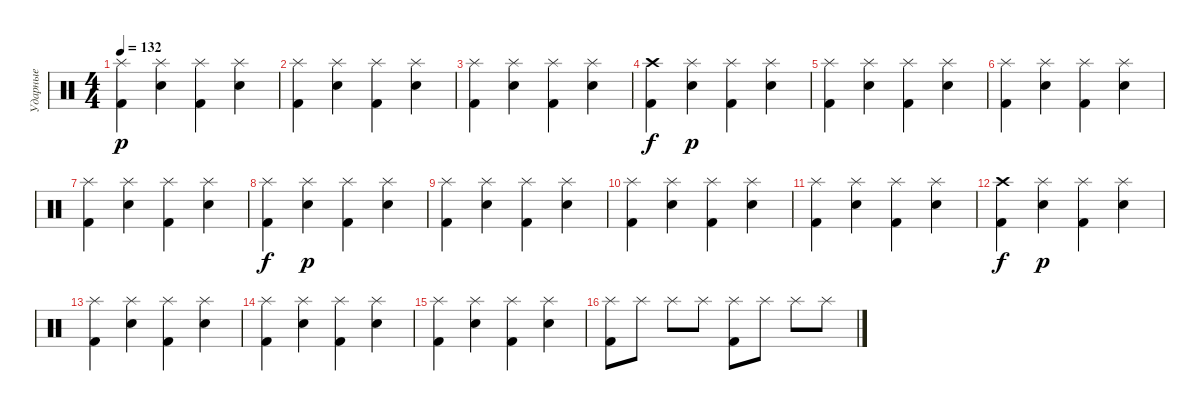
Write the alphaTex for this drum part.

\track ("Ударные" "Ударные") {instrument percussion}
\staff {score}
\articulation defaults
\ts (4 4)
\tempo 132
\clef neutral
\ks c
("Splash (hit)" "Kick (hit) 2").4{dy p} ("Splash (hit)" "Electric Snare (hit)").4 ("Splash (hit)" "Kick (hit) 2").4 ("Splash (hit)" "Electric Snare (hit)").4 |
("Splash (hit)" "Kick (hit) 2").4 ("Splash (hit)" "Electric Snare (hit)").4 ("Splash (hit)" "Kick (hit) 2").4 ("Splash (hit)" "Electric Snare (hit)").4 |
("Splash (hit)" "Kick (hit) 2").4 ("Splash (hit)" "Electric Snare (hit)").4 ("Splash (hit)" "Kick (hit) 2").4 ("Splash (hit)" "Electric Snare (hit)").4 |
("Crash high (hit)" "Kick (hit) 2").4{dy f} ("Splash (hit)" "Electric Snare (hit)").4{dy p} ("Splash (hit)" "Kick (hit) 2").4 ("Splash (hit)" "Electric Snare (hit)").4 |
("Splash (hit)" "Kick (hit) 2").4 ("Splash (hit)" "Electric Snare (hit)").4 ("Splash (hit)" "Kick (hit) 2").4 ("Splash (hit)" "Electric Snare (hit)").4 |
("Splash (hit)" "Kick (hit) 2").4 ("Splash (hit)" "Electric Snare (hit)").4 ("Splash (hit)" "Kick (hit) 2").4 ("Splash (hit)" "Electric Snare (hit)").4 |
("Splash (hit)" "Kick (hit) 2").4 ("Splash (hit)" "Electric Snare (hit)").4 ("Splash (hit)" "Kick (hit) 2").4 ("Splash (hit)" "Electric Snare (hit)").4 |
("Splash (hit)" "Kick (hit) 2").4{dy f} ("Splash (hit)" "Electric Snare (hit)").4{dy p} ("Splash (hit)" "Kick (hit) 2").4 ("Splash (hit)" "Electric Snare (hit)").4 |
("Splash (hit)" "Kick (hit) 2").4 ("Splash (hit)" "Electric Snare (hit)").4 ("Splash (hit)" "Kick (hit) 2").4 ("Splash (hit)" "Electric Snare (hit)").4 |
("Splash (hit)" "Kick (hit) 2").4 ("Splash (hit)" "Electric Snare (hit)").4 ("Splash (hit)" "Kick (hit) 2").4 ("Splash (hit)" "Electric Snare (hit)").4 |
("Splash (hit)" "Kick (hit) 2").4 ("Splash (hit)" "Electric Snare (hit)").4 ("Splash (hit)" "Kick (hit) 2").4 ("Splash (hit)" "Electric Snare (hit)").4 |
("Crash high (hit)" "Kick (hit) 2").4{dy f} ("Splash (hit)" "Electric Snare (hit)").4{dy p} ("Splash (hit)" "Kick (hit) 2").4 ("Splash (hit)" "Electric Snare (hit)").4 |
("Splash (hit)" "Kick (hit) 2").4 ("Splash (hit)" "Electric Snare (hit)").4 ("Splash (hit)" "Kick (hit) 2").4 ("Splash (hit)" "Electric Snare (hit)").4 |
("Splash (hit)" "Kick (hit) 2").4 ("Splash (hit)" "Electric Snare (hit)").4 ("Splash (hit)" "Kick (hit) 2").4 ("Splash (hit)" "Electric Snare (hit)").4 |
("Splash (hit)" "Kick (hit) 2").4 ("Splash (hit)" "Electric Snare (hit)").4 ("Splash (hit)" "Kick (hit) 2").4 ("Splash (hit)" "Electric Snare (hit)").4 |
("Splash (hit)" "Kick (hit) 2").8 "Splash (hit)".8 "Splash (hit)".8 "Splash (hit)".8 ("Splash (hit)" "Kick (hit) 2").8 "Splash (hit)".8 "Splash (hit)".8 "Splash (hit)".8
